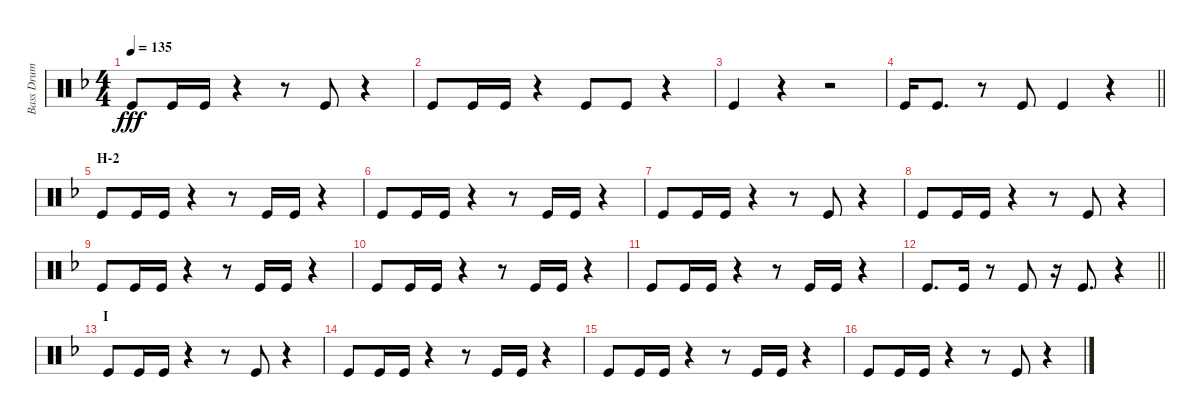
\track ("Bass Drum" "Bass Drum") {instrument percussion}
\staff {score}
\articulation defaults
\ts (4 4)
\tempo 135
\clef neutral
\ks f "Kick (hit)".8{dy fff} "Kick (hit)".16 "Kick (hit)".16
r.4 r.8 "Kick (hit)".8 r.4 |
"Kick (hit)".8 "Kick (hit)".16 "Kick (hit)".16 r.4 "Kick (hit)".8 "Kick (hit)".8 r.4 |
"Kick (hit)".4 r.4 r.2 |
\barLineRight lightlight "Kick (hit)".16 "Kick (hit)".8{d}
r.8 "Kick (hit)".8 "Kick (hit)".4 r.4 |
\section ("" "H-2")
"Kick (hit)".8 "Kick (hit)".16 "Kick (hit)".16 r.4 r.8 "Kick (hit)".16 "Kick (hit)".16 r.4 |
"Kick (hit)".8 "Kick (hit)".16 "Kick (hit)".16 r.4 r.8 "Kick (hit)".16 "Kick (hit)".16 r.4 |
"Kick (hit)".8 "Kick (hit)".16 "Kick (hit)".16 r.4 r.8 "Kick (hit)".8 r.4 |
"Kick (hit)".8 "Kick (hit)".16 "Kick (hit)".16 r.4 r.8 "Kick (hit)".8 r.4 |
"Kick (hit)".8 "Kick (hit)".16 "Kick (hit)".16 r.4 r.8 "Kick (hit)".16 "Kick (hit)".16 r.4 |
"Kick (hit)".8 "Kick (hit)".16 "Kick (hit)".16 r.4 r.8 "Kick (hit)".16 "Kick (hit)".16 r.4 |
"Kick (hit)".8 "Kick (hit)".16 "Kick (hit)".16 r.4 r.8 "Kick (hit)".16 "Kick (hit)".16 r.4 |
\barLineRight lightlight "Kick (hit)".8{d} "Kick (hit)".16
r.8 "Kick (hit)".8 r.16 "Kick (hit)".8{d} r.4 |
\section ("" "I")
"Kick (hit)".8 "Kick (hit)".16 "Kick (hit)".16 r.4 r.8 "Kick (hit)".8 r.4 |
"Kick (hit)".8 "Kick (hit)".16 "Kick (hit)".16 r.4 r.8 "Kick (hit)".16 "Kick (hit)".16 r.4 |
"Kick (hit)".8 "Kick (hit)".16 "Kick (hit)".16 r.4 r.8 "Kick (hit)".16 "Kick (hit)".16 r.4 |
"Kick (hit)".8 "Kick (hit)".16 "Kick (hit)".16 r.4 r.8 "Kick (hit)".8 r.4
